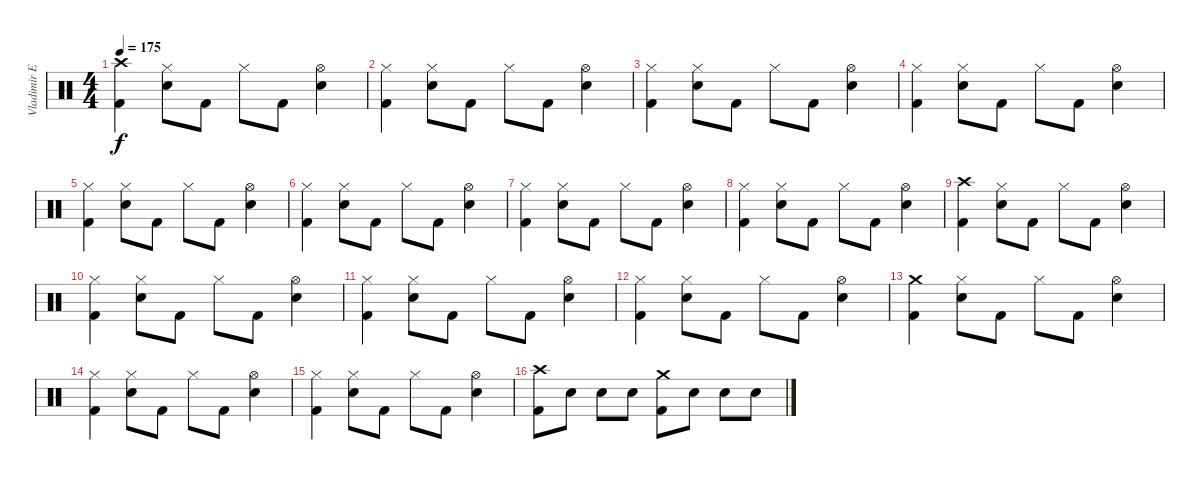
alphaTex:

\track ("Vladimir Ermakoff" "Vladimir E") {instrument percussion}
\staff {score}
\articulation defaults
\ts (4 4)
\tempo 175
\clef neutral
\ks c
("Crash high (hit)" "Kick (hit) 2").4{dy f} ("Hi-Hat (closed)" "Electric Snare (hit)").8 "Kick (hit) 2".8 "Hi-Hat (closed)".8 "Kick (hit) 2".8 ("Hi-Hat (open)" "Electric Snare (hit)").4 |
("Hi-Hat (closed)" "Kick (hit) 2").4 ("Hi-Hat (closed)" "Electric Snare (hit)").8 "Kick (hit) 2".8 "Hi-Hat (closed)".8 "Kick (hit) 2".8 ("Hi-Hat (open)" "Electric Snare (hit)").4 |
("Hi-Hat (closed)" "Kick (hit) 2").4 ("Hi-Hat (closed)" "Electric Snare (hit)").8 "Kick (hit) 2".8 "Hi-Hat (closed)".8 "Kick (hit) 2".8 ("Hi-Hat (open)" "Electric Snare (hit)").4 |
("Hi-Hat (closed)" "Kick (hit) 2").4 ("Hi-Hat (closed)" "Electric Snare (hit)").8 "Kick (hit) 2".8 "Hi-Hat (closed)".8 "Kick (hit) 2".8 ("Hi-Hat (open)" "Electric Snare (hit)").4 |
("Hi-Hat (closed)" "Kick (hit) 2").4 ("Hi-Hat (closed)" "Electric Snare (hit)").8 "Kick (hit) 2".8 "Hi-Hat (closed)".8 "Kick (hit) 2".8 ("Hi-Hat (open)" "Electric Snare (hit)").4 |
("Hi-Hat (closed)" "Kick (hit) 2").4 ("Hi-Hat (closed)" "Electric Snare (hit)").8 "Kick (hit) 2".8 "Hi-Hat (closed)".8 "Kick (hit) 2".8 ("Hi-Hat (open)" "Electric Snare (hit)").4 |
("Hi-Hat (closed)" "Kick (hit) 2").4 ("Hi-Hat (closed)" "Electric Snare (hit)").8 "Kick (hit) 2".8 "Hi-Hat (closed)".8 "Kick (hit) 2".8 ("Hi-Hat (open)" "Electric Snare (hit)").4 |
("Hi-Hat (closed)" "Kick (hit) 2").4 ("Hi-Hat (closed)" "Electric Snare (hit)").8 "Kick (hit) 2".8 "Hi-Hat (closed)".8 "Kick (hit) 2".8 ("Hi-Hat (open)" "Electric Snare (hit)").4 |
("Crash high (hit)" "Kick (hit) 2").4 ("Hi-Hat (closed)" "Electric Snare (hit)").8 "Kick (hit) 2".8 "Hi-Hat (closed)".8 "Kick (hit) 2".8 ("Hi-Hat (open)" "Electric Snare (hit)").4 |
("Hi-Hat (closed)" "Kick (hit) 2").4 ("Hi-Hat (closed)" "Electric Snare (hit)").8 "Kick (hit) 2".8 "Hi-Hat (closed)".8 "Kick (hit) 2".8 ("Hi-Hat (open)" "Electric Snare (hit)").4 |
("Hi-Hat (closed)" "Kick (hit) 2").4 ("Hi-Hat (closed)" "Electric Snare (hit)").8 "Kick (hit) 2".8 "Hi-Hat (closed)".8 "Kick (hit) 2".8 ("Hi-Hat (open)" "Electric Snare (hit)").4 |
("Hi-Hat (closed)" "Kick (hit) 2").4 ("Hi-Hat (closed)" "Electric Snare (hit)").8 "Kick (hit) 2".8 "Hi-Hat (closed)".8 "Kick (hit) 2".8 ("Hi-Hat (open)" "Electric Snare (hit)").4 |
("Crash medium (hit)" "Kick (hit) 2").4 ("Hi-Hat (closed)" "Electric Snare (hit)").8 "Kick (hit) 2".8 "Hi-Hat (closed)".8 "Kick (hit) 2".8 ("Hi-Hat (open)" "Electric Snare (hit)").4 |
("Hi-Hat (closed)" "Kick (hit) 2").4 ("Hi-Hat (closed)" "Electric Snare (hit)").8 "Kick (hit) 2".8 "Hi-Hat (closed)".8 "Kick (hit) 2".8 ("Hi-Hat (open)" "Electric Snare (hit)").4 |
("Hi-Hat (closed)" "Kick (hit) 2").4 ("Hi-Hat (closed)" "Electric Snare (hit)").8 "Kick (hit) 2".8 "Hi-Hat (closed)".8 "Kick (hit) 2".8 ("Hi-Hat (open)" "Electric Snare (hit)").4 |
("Crash high (hit)" "Kick (hit) 2").8 "Electric Snare (hit)".8 "Electric Snare (hit)".8 "Electric Snare (hit)".8 ("Crash medium (hit)" "Kick (hit) 2").8 "Electric Snare (hit)".8 "Electric Snare (hit)".8 "Electric Snare (hit)".8
